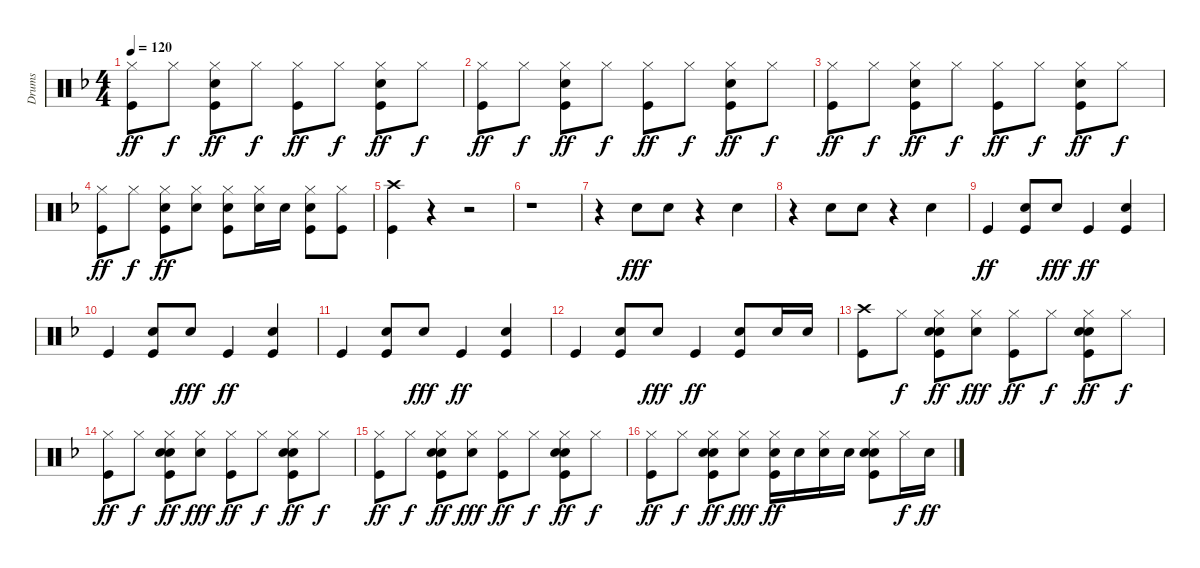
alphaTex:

\track ("Drums" "Drums") {instrument percussion}
\staff {score}
\articulation defaults
\ts (4 4)
\tempo 120
\clef neutral
\ks f
("Hi-Hat (closed)" "Kick (hit)").8{dy ff} "Hi-Hat (closed)".8{dy f} ("Hi-Hat (closed)" "Snare (hit) 2" "Kick (hit)").8{dy ff} "Hi-Hat (closed)".8{dy f} ("Hi-Hat (closed)" "Kick (hit)").8{dy ff} "Hi-Hat (closed)".8{dy f} ("Hi-Hat (closed)" "Snare (hit) 2" "Kick (hit)").8{dy ff} "Hi-Hat (closed)".8{dy f} |
("Hi-Hat (closed)" "Kick (hit)").8{dy ff} "Hi-Hat (closed)".8{dy f} ("Hi-Hat (closed)" "Snare (hit) 2" "Kick (hit)").8{dy ff} "Hi-Hat (closed)".8{dy f} ("Hi-Hat (closed)" "Kick (hit)").8{dy ff} "Hi-Hat (closed)".8{dy f} ("Hi-Hat (closed)" "Snare (hit) 2" "Kick (hit)").8{dy ff} "Hi-Hat (closed)".8{dy f} |
("Hi-Hat (closed)" "Kick (hit)").8{dy ff} "Hi-Hat (closed)".8{dy f} ("Hi-Hat (closed)" "Snare (hit) 2" "Kick (hit)").8{dy ff} "Hi-Hat (closed)".8{dy f} ("Hi-Hat (closed)" "Kick (hit)").8{dy ff} "Hi-Hat (closed)".8{dy f} ("Hi-Hat (closed)" "Snare (hit) 2" "Kick (hit)").8{dy ff} "Hi-Hat (closed)".8{dy f} |
("Hi-Hat (closed)" "Kick (hit)").8{dy ff} "Hi-Hat (closed)".8{dy f} ("Hi-Hat (closed)" "Snare (hit) 2" "Kick (hit)").8{dy ff} ("Hi-Hat (closed)" "Snare (hit) 2").8 ("Hi-Hat (closed)" "Snare (hit) 2" "Kick (hit)").8 ("Hi-Hat (closed)" "Snare (hit) 2").16 "Snare (hit) 2".16 ("Hi-Hat (closed)" "Snare (hit) 2" "Kick (hit)").8 ("Hi-Hat (closed)" "Kick (hit)").8 |
("Crash high (hit)" "Kick (hit)").4 r.4 r.2 |
r.1 |
r.4 "Hand Clap (hit)".8{dy fff} "Hand Clap (hit)".8 r.4 "Hand Clap (hit)".4 |
r.4 "Hand Clap (hit)".8 "Hand Clap (hit)".8 r.4 "Hand Clap (hit)".4 |
"Kick (hit)".4{dy ff} ("Hand Clap (hit)" "Kick (hit)").8 "Hand Clap (hit)".8{dy fff} "Kick (hit)".4{dy ff} ("Hand Clap (hit)" "Kick (hit)").4 |
"Kick (hit)".4 ("Hand Clap (hit)" "Kick (hit)").8 "Hand Clap (hit)".8{dy fff} "Kick (hit)".4{dy ff} ("Hand Clap (hit)" "Kick (hit)").4 |
"Kick (hit)".4 ("Hand Clap (hit)" "Kick (hit)").8 "Hand Clap (hit)".8{dy fff} "Kick (hit)".4{dy ff} ("Hand Clap (hit)" "Kick (hit)").4 |
"Kick (hit)".4 ("Hand Clap (hit)" "Kick (hit)").8 "Hand Clap (hit)".8{dy fff} "Kick (hit)".4{dy ff} ("Snare (hit) 2" "Kick (hit)").8 "Snare (hit) 2".16 "Snare (hit) 2".16 |
("Crash high (hit)" "Kick (hit)").8 "Hi-Hat (closed)".8{dy f} ("Hi-Hat (closed)" "Hand Clap (hit)" "Snare (hit) 2" "Kick (hit)").8{dy ff} ("Hi-Hat (closed)" "Hand Clap (hit)").8{dy fff} ("Hi-Hat (closed)" "Kick (hit)").8{dy ff} "Hi-Hat (closed)".8{dy f} ("Hi-Hat (closed)" "Hand Clap (hit)" "Snare (hit) 2" "Kick (hit)").8{dy ff} "Hi-Hat (closed)".8{dy f} |
("Hi-Hat (closed)" "Kick (hit)").8{dy ff} "Hi-Hat (closed)".8{dy f} ("Hi-Hat (closed)" "Hand Clap (hit)" "Snare (hit) 2" "Kick (hit)").8{dy ff} ("Hi-Hat (closed)" "Hand Clap (hit)").8{dy fff} ("Hi-Hat (closed)" "Kick (hit)").8{dy ff} "Hi-Hat (closed)".8{dy f} ("Hi-Hat (closed)" "Hand Clap (hit)" "Snare (hit) 2" "Kick (hit)").8{dy ff} "Hi-Hat (closed)".8{dy f} |
("Hi-Hat (closed)" "Kick (hit)").8{dy ff} "Hi-Hat (closed)".8{dy f} ("Hi-Hat (closed)" "Hand Clap (hit)" "Snare (hit) 2" "Kick (hit)").8{dy ff} ("Hi-Hat (closed)" "Hand Clap (hit)").8{dy fff} ("Hi-Hat (closed)" "Kick (hit)").8{dy ff} "Hi-Hat (closed)".8{dy f} ("Hi-Hat (closed)" "Hand Clap (hit)" "Snare (hit) 2" "Kick (hit)").8{dy ff} "Hi-Hat (closed)".8{dy f} |
("Hi-Hat (closed)" "Kick (hit)").8{dy ff} "Hi-Hat (closed)".8{dy f} ("Hi-Hat (closed)" "Hand Clap (hit)" "Snare (hit) 2" "Kick (hit)").8{dy ff} ("Hi-Hat (closed)" "Hand Clap (hit)").8{dy fff} ("Hi-Hat (closed)" "Snare (hit) 2" "Kick (hit)").16{dy ff} "Snare (hit) 2".16 ("Hi-Hat (closed)" "Snare (hit) 2").16 "Snare (hit) 2".16 ("Hi-Hat (closed)" "Hand Clap (hit)" "Snare (hit) 2" "Kick (hit)").8 "Hi-Hat (closed)".16{dy f} "Snare (hit) 2".16{dy ff}
